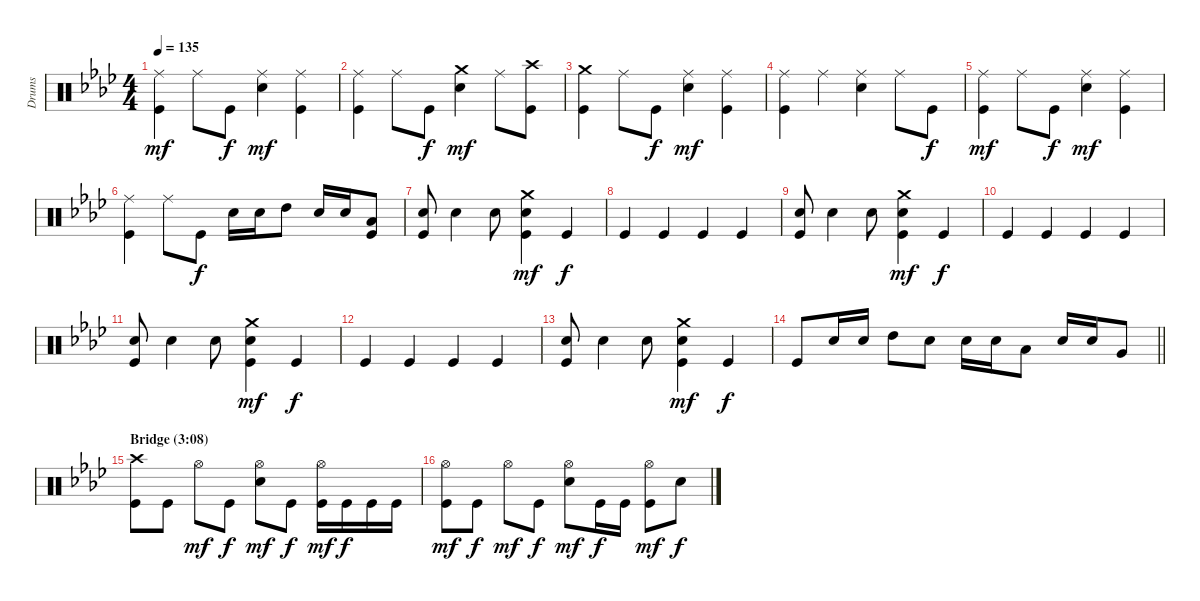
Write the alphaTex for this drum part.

\track ("Drums" "Drums") {instrument percussion}
\staff {score}
\articulation defaults
\ts (4 4)
\tempo 135
\clef neutral
\ks fminor
("Ride (middle)" "Kick (hit)").4{dy mf} "Ride (middle)".8 "Kick (hit)".8{dy f} ("Ride (middle)" "Snare (hit) 2").4{dy mf} ("Ride (middle)" "Kick (hit)").4 |
("Ride (middle)" "Kick (hit)").4 "Ride (middle)".8 "Kick (hit)".8{dy f} ("Crash medium (hit)" "Snare (hit) 2").4{dy mf} "Ride (middle)".8 ("Crash high (hit)" "Kick (hit)").8 |
("Crash medium (hit)" "Kick (hit)").4 "Ride (middle)".8 "Kick (hit)".8{dy f} ("Ride (middle)" "Snare (hit) 2").4{dy mf} ("Ride (middle)" "Kick (hit)").4 |
("Ride (middle)" "Kick (hit)").4 "Ride (middle)".4 ("Ride (middle)" "Snare (hit) 2").4 "Ride (middle)".8 "Kick (hit)".8{dy f} |
("Ride (middle)" "Kick (hit)").4{dy mf} "Ride (middle)".8 "Kick (hit)".8{dy f} ("Ride (middle)" "Snare (hit) 2").4{dy mf} ("Ride (middle)" "Kick (hit)").4 |
("Ride (middle)" "Kick (hit)").4 "Ride (middle)".8 "Kick (hit)".8{dy f} "Snare (hit) 2".16 "Snare (hit) 2".16 "High Tom (hit)".8 "Snare (hit) 2".16 "Snare (hit) 2".16 ("Low Floor Tom (hit)" "Kick (hit)").8 |
("Snare (hit) 2" "Kick (hit)").8 "Snare (hit) 2".4 "Snare (hit) 2".8 ("Crash medium (hit)" "Snare (hit) 2" "Kick (hit)").4{dy mf} "Kick (hit)".4{dy f} |
"Kick (hit)".4 "Kick (hit)".4 "Kick (hit)".4 "Kick (hit)".4 |
("Snare (hit) 2" "Kick (hit)").8 "Snare (hit) 2".4 "Snare (hit) 2".8 ("Crash medium (hit)" "Snare (hit) 2" "Kick (hit)").4{dy mf} "Kick (hit)".4{dy f} |
"Kick (hit)".4 "Kick (hit)".4 "Kick (hit)".4 "Kick (hit)".4 |
("Snare (hit) 2" "Kick (hit)").8 "Snare (hit) 2".4 "Snare (hit) 2".8 ("Crash medium (hit)" "Snare (hit) 2" "Kick (hit)").4{dy mf} "Kick (hit)".4{dy f} |
"Kick (hit)".4 "Kick (hit)".4 "Kick (hit)".4 "Kick (hit)".4 |
("Snare (hit) 2" "Kick (hit)").8 "Snare (hit) 2".4 "Snare (hit) 2".8 ("Crash medium (hit)" "Snare (hit) 2" "Kick (hit)").4{dy mf} "Kick (hit)".4{dy f} |
\barLineRight lightlight "Kick (hit)".8 "Snare (hit) 2".16 "Snare (hit) 2".16 "High Tom (hit)".8 "Snare (hit) 2".8 "Snare (hit) 2".16 "Snare (hit) 2".16 "Low Tom (hit)".8 "Snare (hit) 2".16 "Snare (hit) 2".16 "Very Low Tom (hit)".8
|
\section ("" "Bridge (3:08)")
("Crash high (hit)" "Kick (hit)").8 "Kick (hit)".8 "Hi-Hat (open)".8{dy mf} "Kick (hit)".8{dy f} ("Hi-Hat (open)" "Snare (hit) 2").8{dy mf} "Kick (hit)".8{dy f} ("Hi-Hat (open)" "Kick (hit)").16{dy mf} "Kick (hit)".16{dy f} "Kick (hit)".16 "Kick (hit)".16 |
("Hi-Hat (open)" "Kick (hit)").8{dy mf} "Kick (hit)".8{dy f} "Hi-Hat (open)".8{dy mf} "Kick (hit)".8{dy f} ("Hi-Hat (open)" "Snare (hit) 2").8{dy mf} "Kick (hit)".16{dy f} "Kick (hit)".16 ("Hi-Hat (open)" "Kick (hit)").8{dy mf} "Snare (hit) 2".8{dy f}
